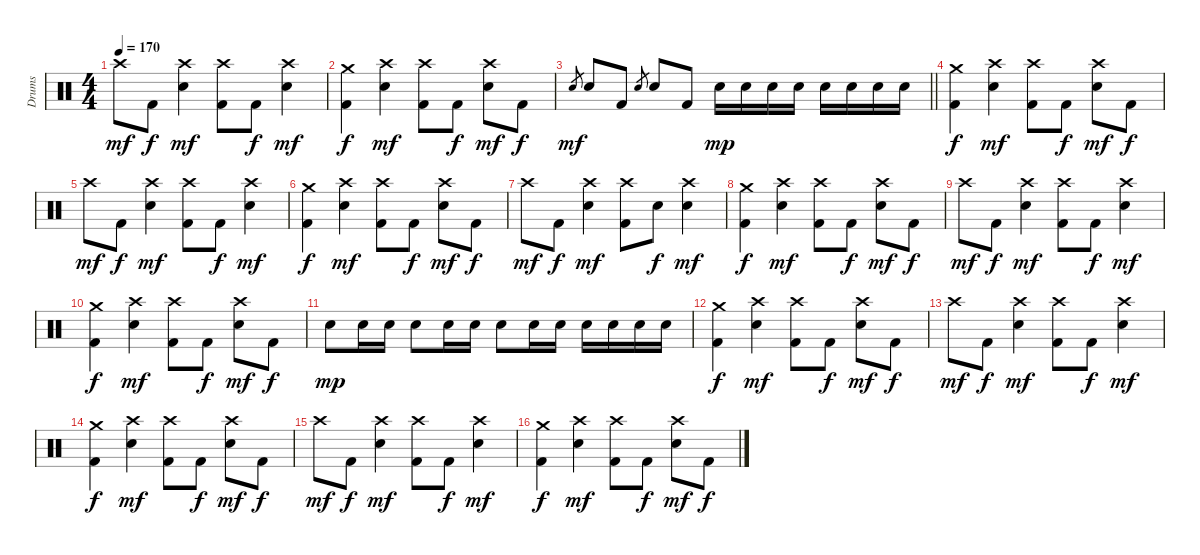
\track ("Drums" "Drums") {instrument percussion}
\staff {score}
\articulation defaults
\ts (4 4)
\tempo 170
\clef neutral
\ks c "Crash high (hit)".8{dy mf} "Kick (hit) 2".8{dy f}
("Crash high (hit)" "Electric Snare (hit)").4{dy mf} ("Crash high (hit)" "Kick (hit) 2").8 "Kick (hit) 2".8{dy f} ("Crash high (hit)" "Electric Snare (hit)").4{dy mf} |
("Crash medium (hit)" "Kick (hit) 2").4{dy f} ("Crash high (hit)" "Electric Snare (hit)").4{dy mf} ("Crash high (hit)" "Kick (hit) 2").8 "Kick (hit) 2".8{dy f} ("Crash high (hit)" "Electric Snare (hit)").8{dy mf} "Kick (hit) 2".8{dy f} |
\barLineRight lightlight "Electric Snare (hit)".8{gr dy mf} "Electric Snare (hit)".8 "Kick (hit) 2".8 "Electric Snare (hit)".8{gr} "Electric Snare (hit)".8 "Kick (hit) 2".8 "Electric Snare (hit)".16{dy mp} "Electric Snare (hit)".16 "Electric Snare (hit)".16 "Electric Snare (hit)".16 "Electric Snare (hit)".16 "Electric Snare (hit)".16 "Electric Snare (hit)".16 "Electric Snare (hit)".16
|
("Crash medium (hit)" "Kick (hit) 2").4{dy f} ("Crash high (hit)" "Electric Snare (hit)").4{dy mf} ("Crash high (hit)" "Kick (hit) 2").8 "Kick (hit) 2".8{dy f} ("Crash high (hit)" "Electric Snare (hit)").8{dy mf} "Kick (hit) 2".8{dy f} |
"Crash high (hit)".8{dy mf} "Kick (hit) 2".8{dy f} ("Crash high (hit)" "Electric Snare (hit)").4{dy mf} ("Crash high (hit)" "Kick (hit) 2").8 "Kick (hit) 2".8{dy f} ("Crash high (hit)" "Electric Snare (hit)").4{dy mf} |
("Crash medium (hit)" "Kick (hit) 2").4{dy f} ("Crash high (hit)" "Electric Snare (hit)").4{dy mf} ("Crash high (hit)" "Kick (hit) 2").8 "Kick (hit) 2".8{dy f} ("Crash high (hit)" "Electric Snare (hit)").8{dy mf} "Kick (hit) 2".8{dy f} |
"Crash high (hit)".8{dy mf} "Kick (hit) 2".8{dy f} ("Crash high (hit)" "Electric Snare (hit)").4{dy mf} ("Crash high (hit)" "Kick (hit) 2").8 "Electric Snare (hit)".8{dy f} ("Crash high (hit)" "Electric Snare (hit)").4{dy mf} |
("Crash medium (hit)" "Kick (hit) 2").4{dy f} ("Crash high (hit)" "Electric Snare (hit)").4{dy mf} ("Crash high (hit)" "Kick (hit) 2").8 "Kick (hit) 2".8{dy f} ("Crash high (hit)" "Electric Snare (hit)").8{dy mf} "Kick (hit) 2".8{dy f} |
"Crash high (hit)".8{dy mf} "Kick (hit) 2".8{dy f} ("Crash high (hit)" "Electric Snare (hit)").4{dy mf} ("Crash high (hit)" "Kick (hit) 2").8 "Kick (hit) 2".8{dy f} ("Crash high (hit)" "Electric Snare (hit)").4{dy mf} |
("Crash medium (hit)" "Kick (hit) 2").4{dy f} ("Crash high (hit)" "Electric Snare (hit)").4{dy mf} ("Crash high (hit)" "Kick (hit) 2").8 "Kick (hit) 2".8{dy f} ("Crash high (hit)" "Electric Snare (hit)").8{dy mf} "Kick (hit) 2".8{dy f} |
"Electric Snare (hit)".8{dy mp} "Electric Snare (hit)".16 "Electric Snare (hit)".16 "Electric Snare (hit)".8 "Electric Snare (hit)".16 "Electric Snare (hit)".16 "Electric Snare (hit)".8 "Electric Snare (hit)".16 "Electric Snare (hit)".16 "Electric Snare (hit)".16 "Electric Snare (hit)".16 "Electric Snare (hit)".16 "Electric Snare (hit)".16 |
("Crash medium (hit)" "Kick (hit) 2").4{dy f} ("Crash high (hit)" "Electric Snare (hit)").4{dy mf} ("Crash high (hit)" "Kick (hit) 2").8 "Kick (hit) 2".8{dy f} ("Crash high (hit)" "Electric Snare (hit)").8{dy mf} "Kick (hit) 2".8{dy f} |
"Crash high (hit)".8{dy mf} "Kick (hit) 2".8{dy f} ("Crash high (hit)" "Electric Snare (hit)").4{dy mf} ("Crash high (hit)" "Kick (hit) 2").8 "Kick (hit) 2".8{dy f} ("Crash high (hit)" "Electric Snare (hit)").4{dy mf} |
("Crash medium (hit)" "Kick (hit) 2").4{dy f} ("Crash high (hit)" "Electric Snare (hit)").4{dy mf} ("Crash high (hit)" "Kick (hit) 2").8 "Kick (hit) 2".8{dy f} ("Crash high (hit)" "Electric Snare (hit)").8{dy mf} "Kick (hit) 2".8{dy f} |
"Crash high (hit)".8{dy mf} "Kick (hit) 2".8{dy f} ("Crash high (hit)" "Electric Snare (hit)").4{dy mf} ("Crash high (hit)" "Kick (hit) 2").8 "Kick (hit) 2".8{dy f} ("Crash high (hit)" "Electric Snare (hit)").4{dy mf} |
("Crash medium (hit)" "Kick (hit) 2").4{dy f} ("Crash high (hit)" "Electric Snare (hit)").4{dy mf} ("Crash high (hit)" "Kick (hit) 2").8 "Kick (hit) 2".8{dy f} ("Crash high (hit)" "Electric Snare (hit)").8{dy mf} "Kick (hit) 2".8{dy f}
